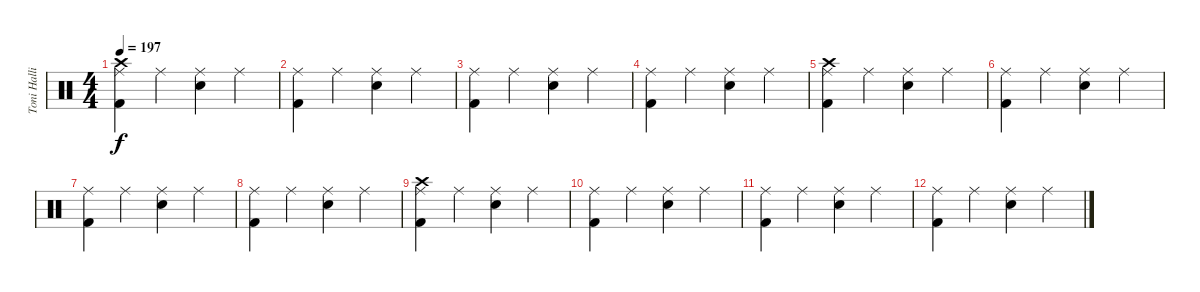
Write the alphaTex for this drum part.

\track ("Toni Hallio" "Toni Halli") {instrument percussion}
\staff {score}
\articulation defaults
\ts (4 4)
\tempo 197
\clef neutral
\ks c
("Ride (middle)" "Crash high (hit)" "Kick (hit) 2").4{dy f} "Ride (middle)".4 ("Ride (middle)" "Snare (hit) 2").4 "Ride (middle)".4 |
("Ride (middle)" "Kick (hit) 2").4 "Ride (middle)".4 ("Ride (middle)" "Snare (hit) 2").4 "Ride (middle)".4 |
("Ride (middle)" "Kick (hit) 2").4 "Ride (middle)".4 ("Ride (middle)" "Snare (hit) 2").4 "Ride (middle)".4 |
("Ride (middle)" "Kick (hit) 2").4 "Ride (middle)".4 ("Ride (middle)" "Snare (hit) 2").4 "Ride (middle)".4 |
("Ride (middle)" "Crash high (hit)" "Kick (hit) 2").4 "Ride (middle)".4 ("Ride (middle)" "Snare (hit) 2").4 "Ride (middle)".4 |
("Ride (middle)" "Kick (hit) 2").4 "Ride (middle)".4 ("Ride (middle)" "Snare (hit) 2").4 "Ride (middle)".4 |
("Ride (middle)" "Kick (hit) 2").4 "Ride (middle)".4 ("Ride (middle)" "Snare (hit) 2").4 "Ride (middle)".4 |
("Ride (middle)" "Kick (hit) 2").4 "Ride (middle)".4 ("Ride (middle)" "Snare (hit) 2").4 "Ride (middle)".4 |
("Ride (middle)" "Crash high (hit)" "Kick (hit) 2").4 "Ride (middle)".4 ("Ride (middle)" "Snare (hit) 2").4 "Ride (middle)".4 |
("Ride (middle)" "Kick (hit) 2").4 "Ride (middle)".4 ("Ride (middle)" "Snare (hit) 2").4 "Ride (middle)".4 |
("Ride (middle)" "Kick (hit) 2").4 "Ride (middle)".4 ("Ride (middle)" "Snare (hit) 2").4 "Ride (middle)".4 |
("Ride (middle)" "Kick (hit) 2").4 "Ride (middle)".4 ("Ride (middle)" "Snare (hit) 2").4 "Ride (middle)".4
